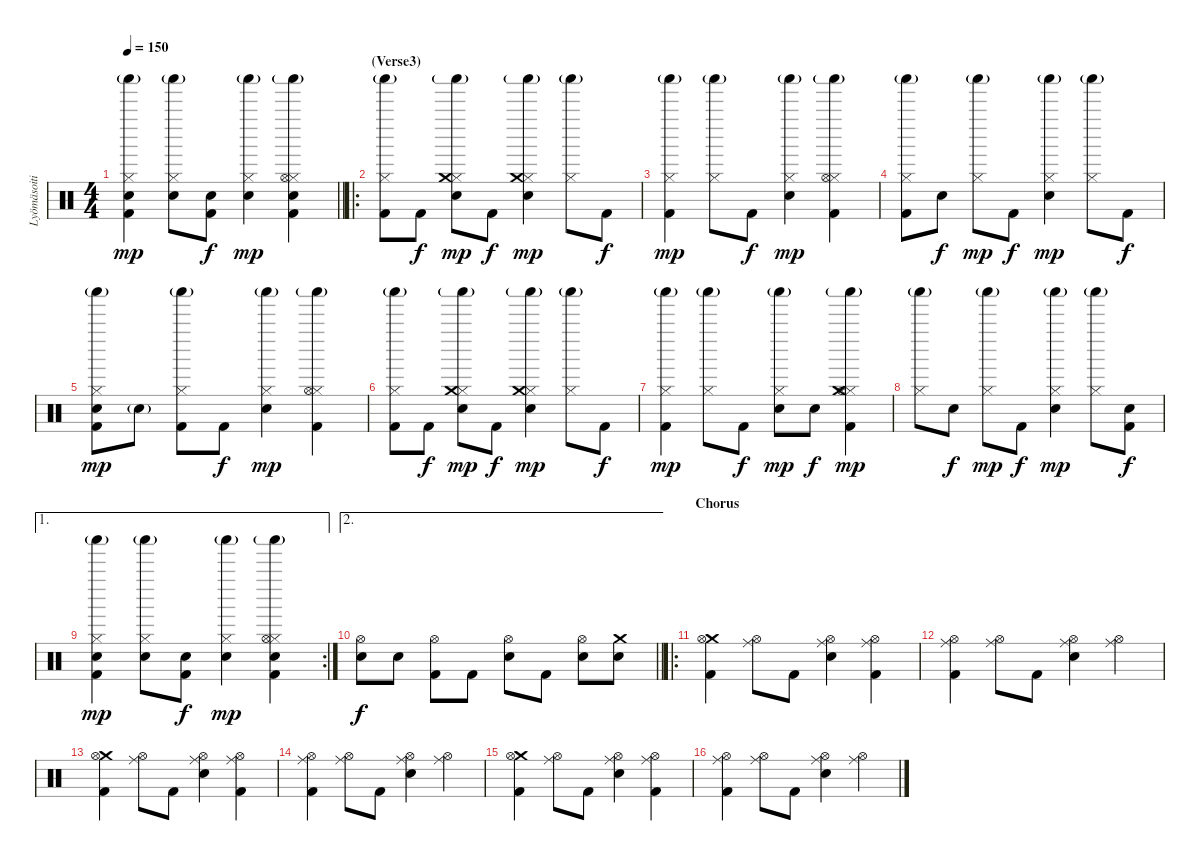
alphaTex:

\track ("Lyömäsoitin" "Lyömäsoiti") {instrument percussion}
\staff
\articulation defaults
\ts (4 4)
\tempo 150
\clef neutral
\barLineRight lightlight
\ks c
("Hi-Hat (closed)" "Snare (hit) 2" "Shaker (hit)"{g} "Kick (hit) 2").4{dy mp} ("Hi-Hat (closed)" "Snare (hit) 2" "Shaker (hit)"{g}).8 ("Snare (hit) 2" "Kick (hit) 2").8{dy f} ("Hi-Hat (closed)" "Snare (hit) 2" "Shaker (hit)"{g}).4{dy mp} ("Hi-Hat (closed)" "Hi-Hat (open)" "Snare (hit) 2" "Shaker (hit)"{g} "Kick (hit) 2").4 |
\ro
\section ("" "(Verse3)")
("Hi-Hat (closed)" "Shaker (hit)"{g} "Kick (hit) 2").8 "Kick (hit) 2".8{dy f} ("Hi-Hat (closed)" "Snare (hit) 2" "Shaker (hit)"{g} "Crash medium (hit)").8{dy mp} "Kick (hit) 2".8{dy f} ("Hi-Hat (closed)" "Crash medium (hit)" "Snare (hit) 2" "Shaker (hit)"{g}).4{dy mp} ("Hi-Hat (closed)" "Shaker (hit)"{g}).8 "Kick (hit) 2".8{dy f} |
("Hi-Hat (closed)" "Shaker (hit)"{g} "Kick (hit) 2").4{dy mp} ("Hi-Hat (closed)" "Shaker (hit)"{g}).8 "Kick (hit) 2".8{dy f} ("Hi-Hat (closed)" "Snare (hit) 2" "Shaker (hit)"{g}).4{dy mp} ("Hi-Hat (closed)" "Hi-Hat (open)" "Shaker (hit)"{g} "Kick (hit) 2").4 |
("Hi-Hat (closed)" "Shaker (hit)"{g} "Kick (hit) 2").8 "Snare (hit) 2".8{dy f} ("Hi-Hat (closed)" "Shaker (hit)"{g}).8{dy mp} "Kick (hit) 2".8{dy f} ("Hi-Hat (closed)" "Snare (hit) 2" "Shaker (hit)"{g}).4{dy mp} ("Hi-Hat (closed)" "Shaker (hit)"{g}).8 "Kick (hit) 2".8{dy f} |
("Hi-Hat (closed)" "Snare (hit) 2" "Shaker (hit)"{g} "Kick (hit) 2").8{dy mp} "Snare (hit) 2"{g}.8 ("Hi-Hat (closed)" "Shaker (hit)"{g} "Kick (hit) 2").8 "Kick (hit) 2".8{dy f} ("Hi-Hat (closed)" "Snare (hit) 2" "Shaker (hit)"{g}).4{dy mp} ("Hi-Hat (closed)" "Hi-Hat (open)" "Shaker (hit)"{g} "Kick (hit) 2").4 |
("Hi-Hat (closed)" "Shaker (hit)"{g} "Kick (hit) 2").8 "Kick (hit) 2".8{dy f} ("Hi-Hat (closed)" "Snare (hit) 2" "Shaker (hit)"{g} "Crash medium (hit)").8{dy mp} "Kick (hit) 2".8{dy f} ("Hi-Hat (closed)" "Crash medium (hit)" "Snare (hit) 2" "Shaker (hit)"{g}).4{dy mp} ("Hi-Hat (closed)" "Shaker (hit)"{g}).8 "Kick (hit) 2".8{dy f} |
("Hi-Hat (closed)" "Shaker (hit)"{g} "Kick (hit) 2").4{dy mp} ("Hi-Hat (closed)" "Shaker (hit)"{g}).8 "Kick (hit) 2".8{dy f} ("Hi-Hat (closed)" "Snare (hit) 2" "Shaker (hit)"{g}).8{dy mp} "Snare (hit) 2".8{dy f} ("Hi-Hat (closed)" "Hi-Hat (open)" "Crash medium (hit)" "Shaker (hit)"{g} "Kick (hit) 2").4{dy mp} |
("Hi-Hat (closed)" "Shaker (hit)"{g}).8 "Snare (hit) 2".8{dy f} ("Hi-Hat (closed)" "Shaker (hit)"{g}).8{dy mp} "Kick (hit) 2".8{dy f} ("Hi-Hat (closed)" "Snare (hit) 2" "Shaker (hit)"{g}).4{dy mp} ("Hi-Hat (closed)" "Shaker (hit)"{g}).8 ("Snare (hit) 2" "Kick (hit) 2").8{dy f} |
\ae 1
\rc 2
("Hi-Hat (closed)" "Snare (hit) 2" "Shaker (hit)"{g} "Kick (hit) 2").4{dy mp} ("Hi-Hat (closed)" "Snare (hit) 2" "Shaker (hit)"{g}).8 ("Snare (hit) 2" "Kick (hit) 2").8{dy f} ("Hi-Hat (closed)" "Snare (hit) 2" "Shaker (hit)"{g}).4{dy mp} ("Hi-Hat (closed)" "Hi-Hat (open)" "Snare (hit) 2" "Shaker (hit)"{g} "Kick (hit) 2").4 |
\ae 2
\barLineRight lightlight
("Hi-Hat (open)" "Snare (hit) 2").8{dy f} "Snare (hit) 2".8 ("Hi-Hat (open)" "Kick (hit) 2").8 "Kick (hit) 2".8 ("Hi-Hat (open)" "Snare (hit) 2").8 "Kick (hit) 2".8 ("Hi-Hat (open)" "Snare (hit) 2").8 ("Crash medium (hit)" "Snare (hit) 2").8 |
\ro
\section ("" "Chorus")
("Crash medium (hit)" "Hi-Hat (open)" "Kick (hit) 2").4 ("Ride (middle)" "Hi-Hat (open)").8 "Kick (hit) 2".8 ("Ride (middle)" "Hi-Hat (open)" "Snare (hit) 2").4 ("Ride (middle)" "Hi-Hat (open)" "Kick (hit) 2").4 |
("Ride (middle)" "Hi-Hat (open)" "Kick (hit) 2").4 ("Ride (middle)" "Hi-Hat (open)").8 "Kick (hit) 2".8 ("Ride (middle)" "Hi-Hat (open)" "Snare (hit) 2").4 ("Ride (middle)" "Hi-Hat (open)").4 |
("Crash medium (hit)" "Hi-Hat (open)" "Kick (hit) 2").4 ("Ride (middle)" "Hi-Hat (open)").8 "Kick (hit) 2".8 ("Ride (middle)" "Hi-Hat (open)" "Snare (hit) 2").4 ("Ride (middle)" "Hi-Hat (open)" "Kick (hit) 2").4 |
("Ride (middle)" "Hi-Hat (open)" "Kick (hit) 2").4 ("Ride (middle)" "Hi-Hat (open)").8 "Kick (hit) 2".8 ("Ride (middle)" "Hi-Hat (open)" "Snare (hit) 2").4 ("Ride (middle)" "Hi-Hat (open)").4 |
("Crash medium (hit)" "Hi-Hat (open)" "Kick (hit) 2").4 ("Ride (middle)" "Hi-Hat (open)").8 "Kick (hit) 2".8 ("Ride (middle)" "Hi-Hat (open)" "Snare (hit) 2").4 ("Ride (middle)" "Hi-Hat (open)" "Kick (hit) 2").4 |
("Ride (middle)" "Hi-Hat (open)" "Kick (hit) 2").4 ("Ride (middle)" "Hi-Hat (open)").8 "Kick (hit) 2".8 ("Ride (middle)" "Hi-Hat (open)" "Snare (hit) 2").4 ("Ride (middle)" "Hi-Hat (open)").4
